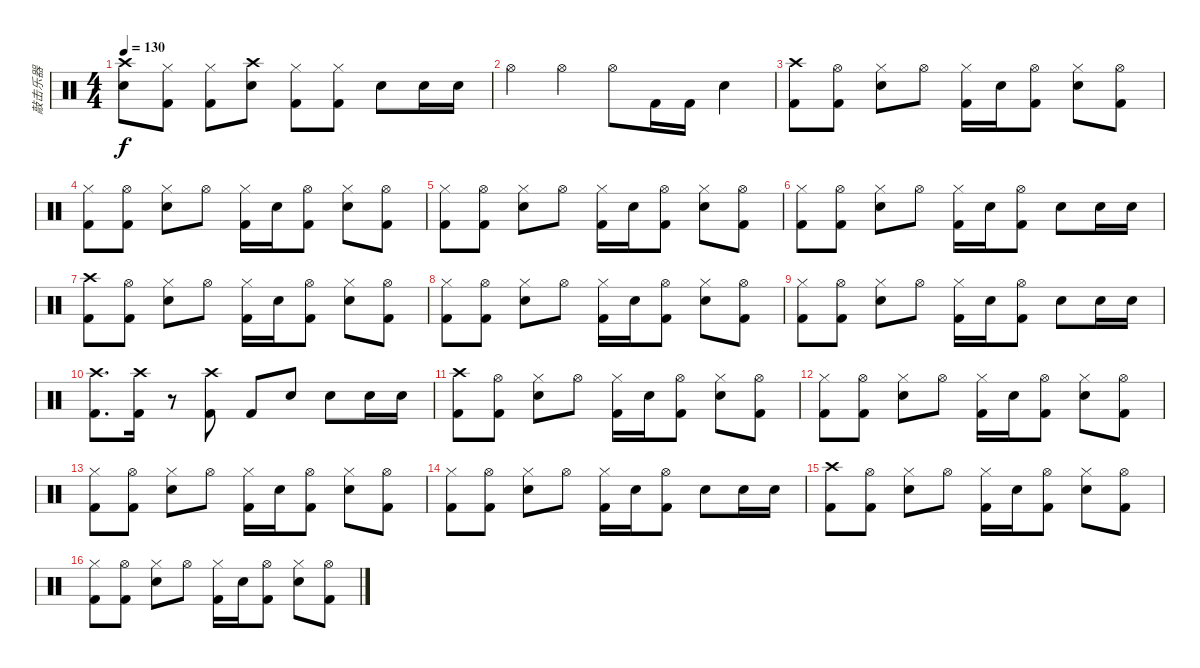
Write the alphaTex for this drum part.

\track ("敲击乐器" "敲击乐器") {instrument percussion}
\staff {score}
\articulation defaults
\ts (4 4)
\tempo 130
\clef neutral
\ks c
("Crash high (hit)" "Electric Snare (hit)").8{dy f} ("Hi-Hat (closed)" "Kick (hit) 2").8 ("Hi-Hat (closed)" "Kick (hit) 2").8 ("Crash high (hit)" "Electric Snare (hit)").8 ("Hi-Hat (closed)" "Kick (hit) 2").8 ("Hi-Hat (closed)" "Kick (hit) 2").8 "Electric Snare (hit)".8 "Electric Snare (hit)".16 "Electric Snare (hit)".16 |
"Hi-Hat (open)".4 "Hi-Hat (open)".4 "Hi-Hat (open)".8 "Kick (hit) 2".16 "Kick (hit) 2".16 "Electric Snare (hit)".4 |
("Crash high (hit)" "Kick (hit) 2").8 ("Hi-Hat (open)" "Kick (hit) 2").8 ("Hi-Hat (closed)" "Electric Snare (hit)").8 "Hi-Hat (open)".8 ("Hi-Hat (closed)" "Kick (hit) 2").16 "Electric Snare (hit)".16 ("Hi-Hat (open)" "Kick (hit) 2").8 ("Hi-Hat (closed)" "Electric Snare (hit)").8 ("Hi-Hat (open)" "Kick (hit) 2").8 |
("Hi-Hat (closed)" "Kick (hit) 2").8 ("Hi-Hat (open)" "Kick (hit) 2").8 ("Hi-Hat (closed)" "Electric Snare (hit)").8 "Hi-Hat (open)".8 ("Hi-Hat (closed)" "Kick (hit) 2").16 "Electric Snare (hit)".16 ("Hi-Hat (open)" "Kick (hit) 2").8 ("Hi-Hat (closed)" "Electric Snare (hit)").8 ("Hi-Hat (open)" "Kick (hit) 2").8 |
("Hi-Hat (closed)" "Kick (hit) 2").8 ("Hi-Hat (open)" "Kick (hit) 2").8 ("Hi-Hat (closed)" "Electric Snare (hit)").8 "Hi-Hat (open)".8 ("Hi-Hat (closed)" "Kick (hit) 2").16 "Electric Snare (hit)".16 ("Hi-Hat (open)" "Kick (hit) 2").8 ("Hi-Hat (closed)" "Electric Snare (hit)").8 ("Hi-Hat (open)" "Kick (hit) 2").8 |
("Hi-Hat (closed)" "Kick (hit) 2").8 ("Hi-Hat (open)" "Kick (hit) 2").8 ("Hi-Hat (closed)" "Electric Snare (hit)").8 "Hi-Hat (open)".8 ("Hi-Hat (closed)" "Kick (hit) 2").16 "Electric Snare (hit)".16 ("Hi-Hat (open)" "Kick (hit) 2").8 "Electric Snare (hit)".8 "Electric Snare (hit)".16 "Electric Snare (hit)".16 |
("Crash high (hit)" "Kick (hit) 2").8 ("Hi-Hat (open)" "Kick (hit) 2").8 ("Hi-Hat (closed)" "Electric Snare (hit)").8 "Hi-Hat (open)".8 ("Hi-Hat (closed)" "Kick (hit) 2").16 "Electric Snare (hit)".16 ("Hi-Hat (open)" "Kick (hit) 2").8 ("Hi-Hat (closed)" "Electric Snare (hit)").8 ("Hi-Hat (open)" "Kick (hit) 2").8 |
("Hi-Hat (closed)" "Kick (hit) 2").8 ("Hi-Hat (open)" "Kick (hit) 2").8 ("Hi-Hat (closed)" "Electric Snare (hit)").8 "Hi-Hat (open)".8 ("Hi-Hat (closed)" "Kick (hit) 2").16 "Electric Snare (hit)".16 ("Hi-Hat (open)" "Kick (hit) 2").8 ("Hi-Hat (closed)" "Electric Snare (hit)").8 ("Hi-Hat (open)" "Kick (hit) 2").8 |
("Hi-Hat (closed)" "Kick (hit) 2").8 ("Hi-Hat (open)" "Kick (hit) 2").8 ("Hi-Hat (closed)" "Electric Snare (hit)").8 "Hi-Hat (open)".8 ("Hi-Hat (closed)" "Kick (hit) 2").16 "Electric Snare (hit)".16 ("Hi-Hat (open)" "Kick (hit) 2").8 "Electric Snare (hit)".8 "Electric Snare (hit)".16 "Electric Snare (hit)".16 |
("Crash high (hit)" "Kick (hit) 2").8{d} ("Crash high (hit)" "Kick (hit) 2").16 r.8 ("Crash high (hit)" "Kick (hit) 2").8 "Kick (hit) 2".8 "Electric Snare (hit)".8 "Electric Snare (hit)".8 "Electric Snare (hit)".16 "Electric Snare (hit)".16 |
("Crash high (hit)" "Kick (hit) 2").8 ("Hi-Hat (open)" "Kick (hit) 2").8 ("Hi-Hat (closed)" "Electric Snare (hit)").8 "Hi-Hat (open)".8 ("Hi-Hat (closed)" "Kick (hit) 2").16 "Electric Snare (hit)".16 ("Hi-Hat (open)" "Kick (hit) 2").8 ("Hi-Hat (closed)" "Electric Snare (hit)").8 ("Hi-Hat (open)" "Kick (hit) 2").8 |
("Hi-Hat (closed)" "Kick (hit) 2").8 ("Hi-Hat (open)" "Kick (hit) 2").8 ("Hi-Hat (closed)" "Electric Snare (hit)").8 "Hi-Hat (open)".8 ("Hi-Hat (closed)" "Kick (hit) 2").16 "Electric Snare (hit)".16 ("Hi-Hat (open)" "Kick (hit) 2").8 ("Hi-Hat (closed)" "Electric Snare (hit)").8 ("Hi-Hat (open)" "Kick (hit) 2").8 |
("Hi-Hat (closed)" "Kick (hit) 2").8 ("Hi-Hat (open)" "Kick (hit) 2").8 ("Hi-Hat (closed)" "Electric Snare (hit)").8 "Hi-Hat (open)".8 ("Hi-Hat (closed)" "Kick (hit) 2").16 "Electric Snare (hit)".16 ("Hi-Hat (open)" "Kick (hit) 2").8 ("Hi-Hat (closed)" "Electric Snare (hit)").8 ("Hi-Hat (open)" "Kick (hit) 2").8 |
("Hi-Hat (closed)" "Kick (hit) 2").8 ("Hi-Hat (open)" "Kick (hit) 2").8 ("Hi-Hat (closed)" "Electric Snare (hit)").8 "Hi-Hat (open)".8 ("Hi-Hat (closed)" "Kick (hit) 2").16 "Electric Snare (hit)".16 ("Hi-Hat (open)" "Kick (hit) 2").8 "Electric Snare (hit)".8 "Electric Snare (hit)".16 "Electric Snare (hit)".16 |
("Crash high (hit)" "Kick (hit) 2").8 ("Hi-Hat (open)" "Kick (hit) 2").8 ("Hi-Hat (closed)" "Electric Snare (hit)").8 "Hi-Hat (open)".8 ("Hi-Hat (closed)" "Kick (hit) 2").16 "Electric Snare (hit)".16 ("Hi-Hat (open)" "Kick (hit) 2").8 ("Hi-Hat (closed)" "Electric Snare (hit)").8 ("Hi-Hat (open)" "Kick (hit) 2").8 |
("Hi-Hat (closed)" "Kick (hit) 2").8 ("Hi-Hat (open)" "Kick (hit) 2").8 ("Hi-Hat (closed)" "Electric Snare (hit)").8 "Hi-Hat (open)".8 ("Hi-Hat (closed)" "Kick (hit) 2").16 "Electric Snare (hit)".16 ("Hi-Hat (open)" "Kick (hit) 2").8 ("Hi-Hat (closed)" "Electric Snare (hit)").8 ("Hi-Hat (open)" "Kick (hit) 2").8
